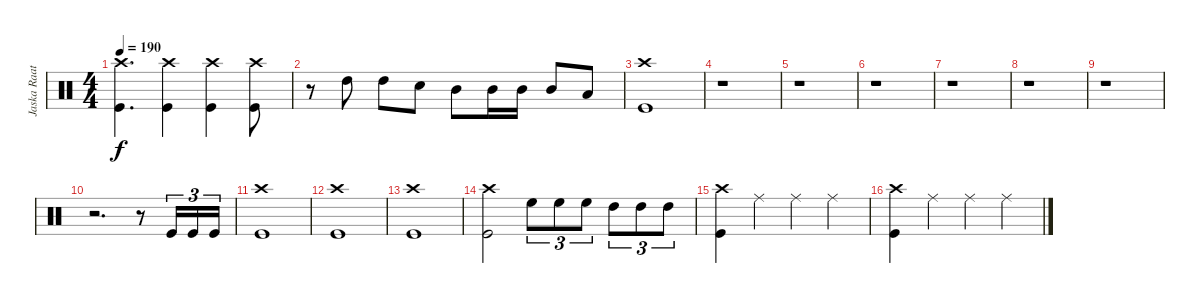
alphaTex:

\track ("Jaska Raatikainen" "Jaska Raat") {instrument percussion}
\staff {score}
\articulation defaults
\ts (4 4)
\tempo 190
\clef neutral
\ks c
("Crash high (hit)" "Kick (hit)").4{d dy f} ("Crash high (hit)" "Kick (hit)").4 ("Crash high (hit)" "Kick (hit)").4 ("Crash high (hit)" "Kick (hit)").8 |
r.8 "High Tom (hit)".8 "High Tom (hit)".8 "Snare (hit) 2".8 "Mid Tom (hit)".8 "Mid Tom (hit)".16 "Mid Tom (hit)".16 "Mid Tom (hit)".8 "Low Tom (hit)".8 |
("Crash high (hit)" "Kick (hit)").1 |
r.1{volume 16} |
r.1 |
r.1 |
r.1 |
r.1 |
r.1 |
r.2{d} r.8 "Kick (hit)".16{tu (3 2)} "Kick (hit)".16{tu (3 2)} "Kick (hit)".16{tu (3 2)} |
("Crash high (hit)" "Kick (hit)").1 |
("Crash high (hit)" "Kick (hit)").1 |
("Crash high (hit)" "Kick (hit)").1 |
("Crash high (hit)" "Kick (hit)").2 "High Floor Tom (hit)".8{tu (3 2)} "High Floor Tom (hit)".8{tu (3 2)} "High Floor Tom (hit)".8{tu (3 2)} "High Tom (hit)".8{tu (3 2)} "High Tom (hit)".8{tu (3 2)} "High Tom (hit)".8{tu (3 2)} |
("Crash high (hit)" "Kick (hit)").4 "Ride (middle)".4 "Ride (middle)".4 "Ride (middle)".4 |
("Crash high (hit)" "Kick (hit)").4 "Ride (middle)".4 "Ride (middle)".4 "Ride (middle)".4
